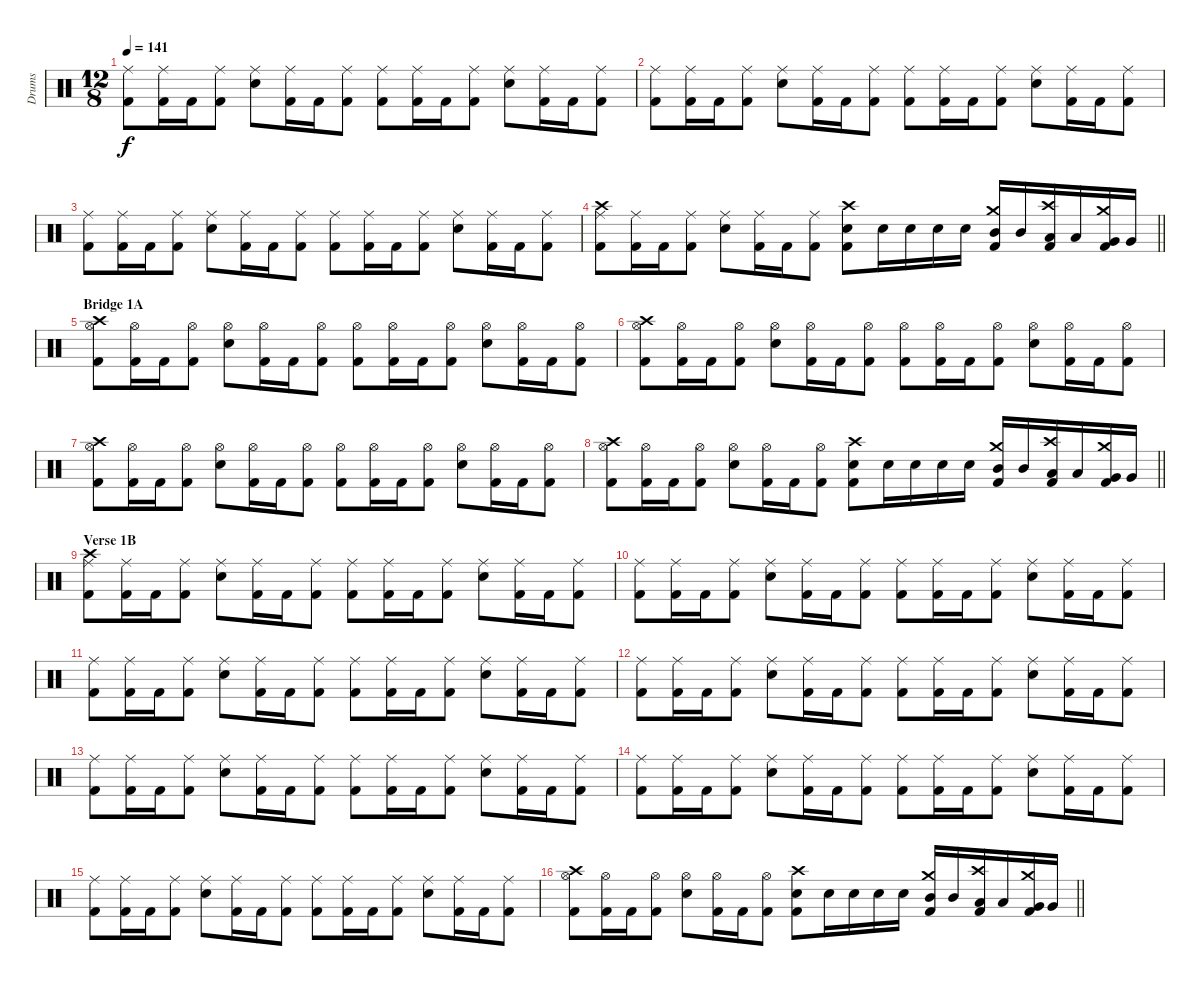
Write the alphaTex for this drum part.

\track ("Drums" "Drums") {instrument percussion}
\staff {score}
\articulation defaults
\ts (12 8)
\tempo 141
\clef neutral
\ks c
("Ride (middle)" "Kick (hit) 2").8{dy f} ("Ride (middle)" "Kick (hit) 2").16 "Kick (hit) 2".16 ("Ride (middle)" "Kick (hit) 2").8 ("Ride (middle)" "Snare (hit) 2").8 ("Ride (middle)" "Kick (hit) 2").16 "Kick (hit) 2".16 ("Ride (middle)" "Kick (hit) 2").8 ("Ride (middle)" "Kick (hit) 2").8 ("Ride (middle)" "Kick (hit) 2").16 "Kick (hit) 2".16 ("Ride (middle)" "Kick (hit) 2").8 ("Ride (middle)" "Snare (hit) 2").8 ("Ride (middle)" "Kick (hit) 2").16 "Kick (hit) 2".16 ("Ride (middle)" "Kick (hit) 2").8 |
("Ride (middle)" "Kick (hit) 2").8 ("Ride (middle)" "Kick (hit) 2").16 "Kick (hit) 2".16 ("Ride (middle)" "Kick (hit) 2").8 ("Ride (middle)" "Snare (hit) 2").8 ("Ride (middle)" "Kick (hit) 2").16 "Kick (hit) 2".16 ("Ride (middle)" "Kick (hit) 2").8 ("Ride (middle)" "Kick (hit) 2").8 ("Ride (middle)" "Kick (hit) 2").16 "Kick (hit) 2".16 ("Ride (middle)" "Kick (hit) 2").8 ("Ride (middle)" "Snare (hit) 2").8 ("Ride (middle)" "Kick (hit) 2").16 "Kick (hit) 2".16 ("Ride (middle)" "Kick (hit) 2").8 |
("Ride (middle)" "Kick (hit) 2").8 ("Ride (middle)" "Kick (hit) 2").16 "Kick (hit) 2".16 ("Ride (middle)" "Kick (hit) 2").8 ("Ride (middle)" "Snare (hit) 2").8 ("Ride (middle)" "Kick (hit) 2").16 "Kick (hit) 2".16 ("Ride (middle)" "Kick (hit) 2").8 ("Ride (middle)" "Kick (hit) 2").8 ("Ride (middle)" "Kick (hit) 2").16 "Kick (hit) 2".16 ("Ride (middle)" "Kick (hit) 2").8 ("Ride (middle)" "Snare (hit) 2").8 ("Ride (middle)" "Kick (hit) 2").16 "Kick (hit) 2".16 ("Ride (middle)" "Kick (hit) 2").8 |
\barLineRight lightlight
("Crash high (hit)" "Ride (middle)" "Kick (hit) 2").8 ("Ride (middle)" "Kick (hit) 2").16 "Kick (hit) 2".16 ("Ride (middle)" "Kick (hit) 2").8 ("Ride (middle)" "Snare (hit) 2").8 ("Ride (middle)" "Kick (hit) 2").16 "Kick (hit) 2".16 ("Ride (middle)" "Kick (hit) 2").8 ("Crash high (hit)" "Snare (hit) 2" "Kick (hit) 2").8 "Snare (hit) 2".16 "Snare (hit) 2".16 "Snare (hit) 2".16 "Snare (hit) 2".16 ("Crash medium (hit)" "Mid Tom (hit)" "Kick (hit) 2").16 "Mid Tom (hit)".16 ("Crash high (hit)" "Low Tom (hit)" "Kick (hit) 2").16 "Low Tom (hit)".16 ("Crash medium (hit)" "Very Low Tom (hit)" "Kick (hit) 2").16 "Very Low Tom (hit)".16 |
\section ("" "Bridge 1A")
("Crash high (hit)" "Hi-Hat (open)" "Kick (hit) 2").8 ("Hi-Hat (open)" "Kick (hit) 2").16 "Kick (hit) 2".16 ("Hi-Hat (open)" "Kick (hit) 2").8 ("Hi-Hat (open)" "Snare (hit) 2").8 ("Hi-Hat (open)" "Kick (hit) 2").16 "Kick (hit) 2".16 ("Hi-Hat (open)" "Kick (hit) 2").8 ("Hi-Hat (open)" "Kick (hit) 2").8 ("Hi-Hat (open)" "Kick (hit) 2").16 "Kick (hit) 2".16 ("Hi-Hat (open)" "Kick (hit) 2").8 ("Hi-Hat (open)" "Snare (hit) 2").8 ("Hi-Hat (open)" "Kick (hit) 2").16 "Kick (hit) 2".16 ("Hi-Hat (open)" "Kick (hit) 2").8 |
("Crash high (hit)" "Hi-Hat (open)" "Kick (hit) 2").8 ("Hi-Hat (open)" "Kick (hit) 2").16 "Kick (hit) 2".16 ("Hi-Hat (open)" "Kick (hit) 2").8 ("Hi-Hat (open)" "Snare (hit) 2").8 ("Hi-Hat (open)" "Kick (hit) 2").16 "Kick (hit) 2".16 ("Hi-Hat (open)" "Kick (hit) 2").8 ("Hi-Hat (open)" "Kick (hit) 2").8 ("Hi-Hat (open)" "Kick (hit) 2").16 "Kick (hit) 2".16 ("Hi-Hat (open)" "Kick (hit) 2").8 ("Hi-Hat (open)" "Snare (hit) 2").8 ("Hi-Hat (open)" "Kick (hit) 2").16 "Kick (hit) 2".16 ("Hi-Hat (open)" "Kick (hit) 2").8 |
("Crash high (hit)" "Hi-Hat (open)" "Kick (hit) 2").8 ("Hi-Hat (open)" "Kick (hit) 2").16 "Kick (hit) 2".16 ("Hi-Hat (open)" "Kick (hit) 2").8 ("Hi-Hat (open)" "Snare (hit) 2").8 ("Hi-Hat (open)" "Kick (hit) 2").16 "Kick (hit) 2".16 ("Hi-Hat (open)" "Kick (hit) 2").8 ("Hi-Hat (open)" "Kick (hit) 2").8 ("Hi-Hat (open)" "Kick (hit) 2").16 "Kick (hit) 2".16 ("Hi-Hat (open)" "Kick (hit) 2").8 ("Hi-Hat (open)" "Snare (hit) 2").8 ("Hi-Hat (open)" "Kick (hit) 2").16 "Kick (hit) 2".16 ("Hi-Hat (open)" "Kick (hit) 2").8 |
\barLineRight lightlight
("Crash high (hit)" "Hi-Hat (open)" "Kick (hit) 2").8 ("Hi-Hat (open)" "Kick (hit) 2").16 "Kick (hit) 2".16 ("Hi-Hat (open)" "Kick (hit) 2").8 ("Hi-Hat (open)" "Snare (hit) 2").8 ("Hi-Hat (open)" "Kick (hit) 2").16 "Kick (hit) 2".16 ("Hi-Hat (open)" "Kick (hit) 2").8 ("Crash high (hit)" "Snare (hit) 2" "Kick (hit) 2").8 "Snare (hit) 2".16 "Snare (hit) 2".16 "Snare (hit) 2".16 "Snare (hit) 2".16 ("Crash medium (hit)" "Mid Tom (hit)" "Kick (hit) 2").16 "Mid Tom (hit)".16 ("Crash high (hit)" "Low Tom (hit)" "Kick (hit) 2").16 "Low Tom (hit)".16 ("Crash medium (hit)" "Very Low Tom (hit)" "Kick (hit) 2").16 "Very Low Tom (hit)".16 |
\section ("" "Verse 1B")
("Crash high (hit)" "Ride (middle)" "Kick (hit) 2").8 ("Ride (middle)" "Kick (hit) 2").16 "Kick (hit) 2".16 ("Ride (middle)" "Kick (hit) 2").8 ("Ride (middle)" "Snare (hit) 2").8 ("Ride (middle)" "Kick (hit) 2").16 "Kick (hit) 2".16 ("Ride (middle)" "Kick (hit) 2").8 ("Ride (middle)" "Kick (hit) 2").8 ("Ride (middle)" "Kick (hit) 2").16 "Kick (hit) 2".16 ("Ride (middle)" "Kick (hit) 2").8 ("Ride (middle)" "Snare (hit) 2").8 ("Ride (middle)" "Kick (hit) 2").16 "Kick (hit) 2".16 ("Ride (middle)" "Kick (hit) 2").8 |
("Ride (middle)" "Kick (hit) 2").8 ("Ride (middle)" "Kick (hit) 2").16 "Kick (hit) 2".16 ("Ride (middle)" "Kick (hit) 2").8 ("Ride (middle)" "Snare (hit) 2").8 ("Ride (middle)" "Kick (hit) 2").16 "Kick (hit) 2".16 ("Ride (middle)" "Kick (hit) 2").8 ("Ride (middle)" "Kick (hit) 2").8 ("Ride (middle)" "Kick (hit) 2").16 "Kick (hit) 2".16 ("Ride (middle)" "Kick (hit) 2").8 ("Ride (middle)" "Snare (hit) 2").8 ("Ride (middle)" "Kick (hit) 2").16 "Kick (hit) 2".16 ("Ride (middle)" "Kick (hit) 2").8 |
("Ride (middle)" "Kick (hit) 2").8 ("Ride (middle)" "Kick (hit) 2").16 "Kick (hit) 2".16 ("Ride (middle)" "Kick (hit) 2").8 ("Ride (middle)" "Snare (hit) 2").8 ("Ride (middle)" "Kick (hit) 2").16 "Kick (hit) 2".16 ("Ride (middle)" "Kick (hit) 2").8 ("Ride (middle)" "Kick (hit) 2").8 ("Ride (middle)" "Kick (hit) 2").16 "Kick (hit) 2".16 ("Ride (middle)" "Kick (hit) 2").8 ("Ride (middle)" "Snare (hit) 2").8 ("Ride (middle)" "Kick (hit) 2").16 "Kick (hit) 2".16 ("Ride (middle)" "Kick (hit) 2").8 |
("Ride (middle)" "Kick (hit) 2").8 ("Ride (middle)" "Kick (hit) 2").16 "Kick (hit) 2".16 ("Ride (middle)" "Kick (hit) 2").8 ("Ride (middle)" "Snare (hit) 2").8 ("Ride (middle)" "Kick (hit) 2").16 "Kick (hit) 2".16 ("Ride (middle)" "Kick (hit) 2").8 ("Ride (middle)" "Kick (hit) 2").8 ("Ride (middle)" "Kick (hit) 2").16 "Kick (hit) 2".16 ("Ride (middle)" "Kick (hit) 2").8 ("Ride (middle)" "Snare (hit) 2").8 ("Ride (middle)" "Kick (hit) 2").16 "Kick (hit) 2".16 ("Ride (middle)" "Kick (hit) 2").8 |
("Ride (middle)" "Kick (hit) 2").8 ("Ride (middle)" "Kick (hit) 2").16 "Kick (hit) 2".16 ("Ride (middle)" "Kick (hit) 2").8 ("Ride (middle)" "Snare (hit) 2").8 ("Ride (middle)" "Kick (hit) 2").16 "Kick (hit) 2".16 ("Ride (middle)" "Kick (hit) 2").8 ("Ride (middle)" "Kick (hit) 2").8 ("Ride (middle)" "Kick (hit) 2").16 "Kick (hit) 2".16 ("Ride (middle)" "Kick (hit) 2").8 ("Ride (middle)" "Snare (hit) 2").8 ("Ride (middle)" "Kick (hit) 2").16 "Kick (hit) 2".16 ("Ride (middle)" "Kick (hit) 2").8 |
("Ride (middle)" "Kick (hit) 2").8 ("Ride (middle)" "Kick (hit) 2").16 "Kick (hit) 2".16 ("Ride (middle)" "Kick (hit) 2").8 ("Ride (middle)" "Snare (hit) 2").8 ("Ride (middle)" "Kick (hit) 2").16 "Kick (hit) 2".16 ("Ride (middle)" "Kick (hit) 2").8 ("Ride (middle)" "Kick (hit) 2").8 ("Ride (middle)" "Kick (hit) 2").16 "Kick (hit) 2".16 ("Ride (middle)" "Kick (hit) 2").8 ("Ride (middle)" "Snare (hit) 2").8 ("Ride (middle)" "Kick (hit) 2").16 "Kick (hit) 2".16 ("Ride (middle)" "Kick (hit) 2").8 |
("Ride (middle)" "Kick (hit) 2").8 ("Ride (middle)" "Kick (hit) 2").16 "Kick (hit) 2".16 ("Ride (middle)" "Kick (hit) 2").8 ("Ride (middle)" "Snare (hit) 2").8 ("Ride (middle)" "Kick (hit) 2").16 "Kick (hit) 2".16 ("Ride (middle)" "Kick (hit) 2").8 ("Ride (middle)" "Kick (hit) 2").8 ("Ride (middle)" "Kick (hit) 2").16 "Kick (hit) 2".16 ("Ride (middle)" "Kick (hit) 2").8 ("Ride (middle)" "Snare (hit) 2").8 ("Ride (middle)" "Kick (hit) 2").16 "Kick (hit) 2".16 ("Ride (middle)" "Kick (hit) 2").8 |
\barLineRight lightlight
("Crash high (hit)" "Hi-Hat (open)" "Kick (hit) 2").8 ("Hi-Hat (open)" "Kick (hit) 2").16 "Kick (hit) 2".16 ("Hi-Hat (open)" "Kick (hit) 2").8 ("Hi-Hat (open)" "Snare (hit) 2").8 ("Hi-Hat (open)" "Kick (hit) 2").16 "Kick (hit) 2".16 ("Hi-Hat (open)" "Kick (hit) 2").8 ("Crash high (hit)" "Snare (hit) 2" "Kick (hit) 2").8 "Snare (hit) 2".16 "Snare (hit) 2".16 "Snare (hit) 2".16 "Snare (hit) 2".16 ("Crash medium (hit)" "Mid Tom (hit)" "Kick (hit) 2").16 "Mid Tom (hit)".16 ("Crash high (hit)" "Low Tom (hit)" "Kick (hit) 2").16 "Low Tom (hit)".16 ("Crash medium (hit)" "Very Low Tom (hit)" "Kick (hit) 2").16 "Very Low Tom (hit)".16
